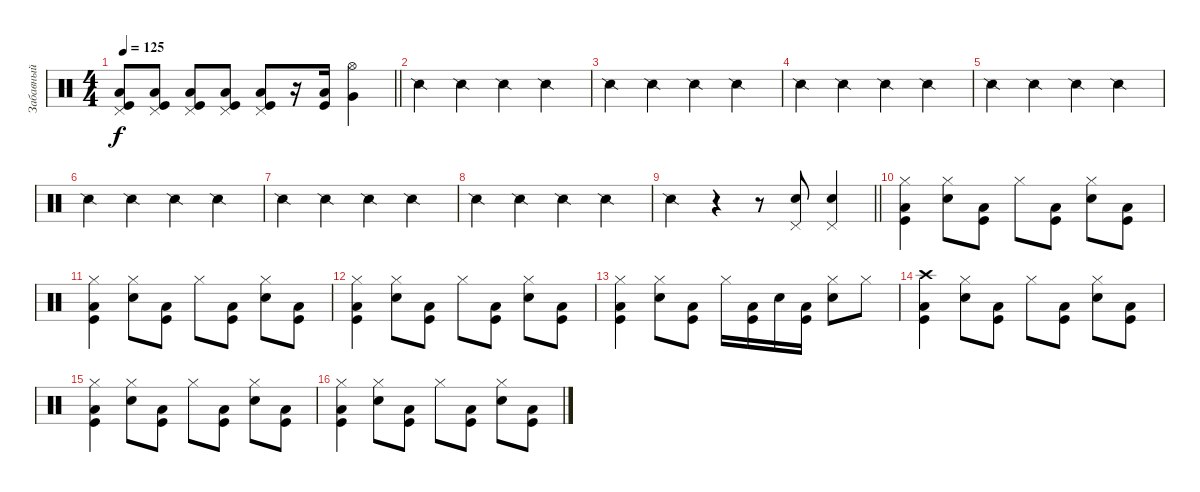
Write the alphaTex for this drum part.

\track ("Забавный" "Забавный") {instrument percussion}
\staff {score}
\articulation defaults
\ts (4 4)
\tempo 125
\clef neutral
\barLineRight lightlight
\ks c
("Pedal Hi-Hat (hit)" "Low Tom (hit)" "Kick (hit)").8{dy f} ("Pedal Hi-Hat (hit)" "Low Tom (hit)" "Kick (hit)").8 ("Pedal Hi-Hat (hit)" "Low Tom (hit)" "Kick (hit)").8 ("Pedal Hi-Hat (hit)" "Low Tom (hit)" "Kick (hit)").8 ("Pedal Hi-Hat (hit)" "Low Tom (hit)" "Kick (hit)").8 r.16 ("Low Tom (hit)" "Kick (hit)").16 ("Hi-Hat (open)" "Very Low Tom (hit)").4 |
"Snare (side stick) 2".4 "Snare (side stick) 2".4 "Snare (side stick) 2".4 "Snare (side stick) 2".4 |
"Snare (side stick) 2".4 "Snare (side stick) 2".4 "Snare (side stick) 2".4 "Snare (side stick) 2".4 |
"Snare (side stick) 2".4 "Snare (side stick) 2".4 "Snare (side stick) 2".4 "Snare (side stick) 2".4 |
"Snare (side stick) 2".4 "Snare (side stick) 2".4 "Snare (side stick) 2".4 "Snare (side stick) 2".4 |
"Snare (side stick) 2".4 "Snare (side stick) 2".4 "Snare (side stick) 2".4 "Snare (side stick) 2".4 |
"Snare (side stick) 2".4 "Snare (side stick) 2".4 "Snare (side stick) 2".4 "Snare (side stick) 2".4 |
"Snare (side stick) 2".4 "Snare (side stick) 2".4 "Snare (side stick) 2".4 "Snare (side stick) 2".4 |
\barLineRight lightlight "Snare (side stick) 2".4
r.4 r.8 ("Pedal Hi-Hat (hit)" "Electric Snare (hit)").8 ("Pedal Hi-Hat (hit)" "Electric Snare (hit)").4 |
("Hi-Hat (closed)" "Low Tom (hit)" "Kick (hit)").4 ("Hi-Hat (closed)" "Electric Snare (hit)").8 ("Low Tom (hit)" "Kick (hit)").8 "Hi-Hat (closed)".8 ("Low Tom (hit)" "Kick (hit)").8 ("Hi-Hat (closed)" "Electric Snare (hit)").8 ("Low Tom (hit)" "Kick (hit)").8 |
("Hi-Hat (closed)" "Low Tom (hit)" "Kick (hit)").4 ("Hi-Hat (closed)" "Electric Snare (hit)").8 ("Low Tom (hit)" "Kick (hit)").8 "Hi-Hat (closed)".8 ("Low Tom (hit)" "Kick (hit)").8 ("Hi-Hat (closed)" "Electric Snare (hit)").8 ("Low Tom (hit)" "Kick (hit)").8 |
("Hi-Hat (closed)" "Low Tom (hit)" "Kick (hit)").4 ("Hi-Hat (closed)" "Electric Snare (hit)").8 ("Low Tom (hit)" "Kick (hit)").8 "Hi-Hat (closed)".8 ("Low Tom (hit)" "Kick (hit)").8 ("Hi-Hat (closed)" "Electric Snare (hit)").8 ("Low Tom (hit)" "Kick (hit)").8 |
("Hi-Hat (closed)" "Low Tom (hit)" "Kick (hit)").4 ("Hi-Hat (closed)" "Electric Snare (hit)").8 ("Low Tom (hit)" "Kick (hit)").8 "Hi-Hat (closed)".16 ("Low Tom (hit)" "Kick (hit)").16 "Electric Snare (hit)".16 ("Low Tom (hit)" "Kick (hit)").16 ("Hi-Hat (closed)" "Electric Snare (hit)").8 "Hi-Hat (closed)".8 |
("Crash high (hit)" "Low Tom (hit)" "Kick (hit)").4 ("Hi-Hat (closed)" "Electric Snare (hit)").8 ("Low Tom (hit)" "Kick (hit)").8 "Hi-Hat (closed)".8 ("Low Tom (hit)" "Kick (hit)").8 ("Hi-Hat (closed)" "Electric Snare (hit)").8 ("Low Tom (hit)" "Kick (hit)").8 |
("Hi-Hat (closed)" "Low Tom (hit)" "Kick (hit)").4 ("Hi-Hat (closed)" "Electric Snare (hit)").8 ("Low Tom (hit)" "Kick (hit)").8 "Hi-Hat (closed)".8 ("Low Tom (hit)" "Kick (hit)").8 ("Hi-Hat (closed)" "Electric Snare (hit)").8 ("Low Tom (hit)" "Kick (hit)").8 |
("Hi-Hat (closed)" "Low Tom (hit)" "Kick (hit)").4 ("Hi-Hat (closed)" "Electric Snare (hit)").8 ("Low Tom (hit)" "Kick (hit)").8 "Hi-Hat (closed)".8 ("Low Tom (hit)" "Kick (hit)").8 ("Hi-Hat (closed)" "Electric Snare (hit)").8 ("Low Tom (hit)" "Kick (hit)").8
